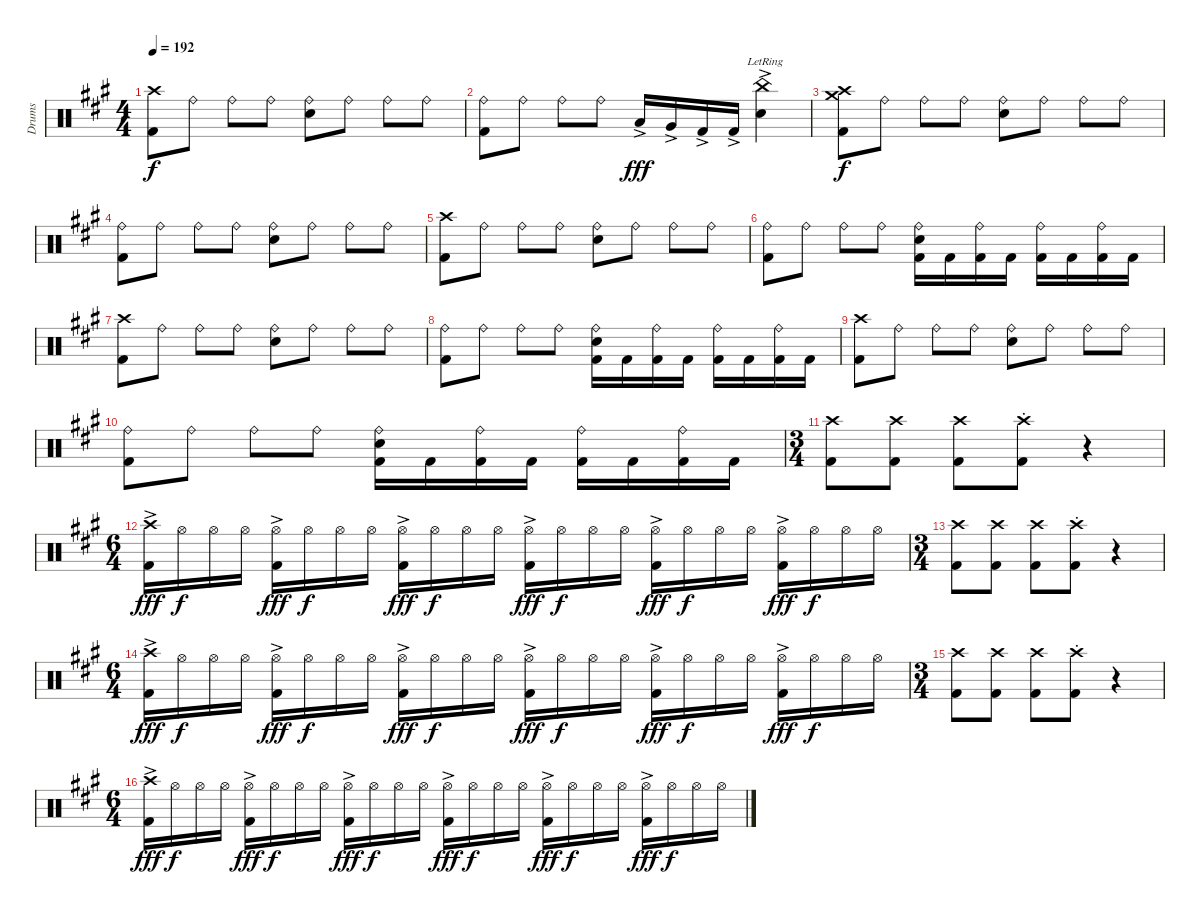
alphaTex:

\track ("Drums" "Drums") {instrument percussion}
\staff {score}
\articulation defaults
\ts (4 4)
\tempo 192
\clef neutral
\ks f#minor
("Crash high (hit)" "Kick (hit) 2").8{dy f} "Ride (bell)".8 "Ride (bell)".8 "Ride (bell)".8 ("Ride (bell)" "Snare (hit) 2").8 "Ride (bell)".8 "Ride (bell)".8 "Ride (bell)".8 |
("Ride (bell)" "Kick (hit) 2").8 "Ride (bell)".8 "Ride (bell)".8 "Ride (bell)".8 "Low Tom (hit)"{ac}.16{dy fff} "Very Low Tom (hit)"{ac}.16 "Kick (hit) 2"{ac}.16 "Kick (hit) 2"{ac}.16 ("China (hit)"{ac lr} "Snare (hit) 2"{ac lr}).4 |
("Crash high (hit)" "Crash medium (hit)" "Kick (hit) 2").8{dy f} "Ride (bell)".8 "Ride (bell)".8 "Ride (bell)".8 ("Ride (bell)" "Snare (hit) 2").8 "Ride (bell)".8 "Ride (bell)".8 "Ride (bell)".8 |
("Ride (bell)" "Kick (hit) 2").8 "Ride (bell)".8 "Ride (bell)".8 "Ride (bell)".8 ("Ride (bell)" "Snare (hit) 2").8 "Ride (bell)".8 "Ride (bell)".8 "Ride (bell)".8 |
("Crash high (hit)" "Kick (hit) 2").8 "Ride (bell)".8 "Ride (bell)".8 "Ride (bell)".8 ("Ride (bell)" "Snare (hit) 2").8 "Ride (bell)".8 "Ride (bell)".8 "Ride (bell)".8 |
("Ride (bell)" "Kick (hit) 2").8 "Ride (bell)".8 "Ride (bell)".8 "Ride (bell)".8 ("Ride (bell)" "Snare (hit) 2" "Kick (hit) 2").16 "Kick (hit) 2".16 ("Ride (bell)" "Kick (hit) 2").16 "Kick (hit) 2".16 ("Ride (bell)" "Kick (hit) 2").16 "Kick (hit) 2".16 ("Ride (bell)" "Kick (hit) 2").16 "Kick (hit) 2".16 |
("Crash high (hit)" "Kick (hit) 2").8 "Ride (bell)".8 "Ride (bell)".8 "Ride (bell)".8 ("Ride (bell)" "Snare (hit) 2").8 "Ride (bell)".8 "Ride (bell)".8 "Ride (bell)".8 |
("Ride (bell)" "Kick (hit) 2").8 "Ride (bell)".8 "Ride (bell)".8 "Ride (bell)".8 ("Ride (bell)" "Snare (hit) 2" "Kick (hit) 2").16 "Kick (hit) 2".16 ("Ride (bell)" "Kick (hit) 2").16 "Kick (hit) 2".16 ("Ride (bell)" "Kick (hit) 2").16 "Kick (hit) 2".16 ("Ride (bell)" "Kick (hit) 2").16 "Kick (hit) 2".16 |
("Crash high (hit)" "Kick (hit) 2").8 "Ride (bell)".8 "Ride (bell)".8 "Ride (bell)".8 ("Ride (bell)" "Snare (hit) 2").8 "Ride (bell)".8 "Ride (bell)".8 "Ride (bell)".8 |
("Ride (bell)" "Kick (hit) 2").8 "Ride (bell)".8 "Ride (bell)".8 "Ride (bell)".8 ("Ride (bell)" "Snare (hit) 2" "Kick (hit) 2").16 "Kick (hit) 2".16 ("Ride (bell)" "Kick (hit) 2").16 "Kick (hit) 2".16 ("Ride (bell)" "Kick (hit) 2").16 "Kick (hit) 2".16 ("Ride (bell)" "Kick (hit) 2").16 "Kick (hit) 2".16 |
\ts (3 4)
("Crash high (hit)" "Kick (hit) 2").8 ("Crash high (hit)" "Kick (hit) 2").8 ("Crash high (hit)" "Kick (hit) 2").8 ("Crash high (hit)"{st} "Kick (hit) 2").8 r.4 |
\ts (6 4)
("Crash high (hit)"{ac} "Kick (hit) 2"{ac}).16{dy fff} "Hi-Hat (open)".16{dy f} "Hi-Hat (open)".16 "Hi-Hat (open)".16 ("Hi-Hat (open)"{ac} "Kick (hit) 2").16{dy fff} "Hi-Hat (open)".16{dy f} "Hi-Hat (open)".16 "Hi-Hat (open)".16 ("Hi-Hat (open)"{ac} "Kick (hit) 2").16{dy fff} "Hi-Hat (open)".16{dy f} "Hi-Hat (open)".16 "Hi-Hat (open)".16 ("Hi-Hat (open)"{ac} "Kick (hit) 2").16{dy fff} "Hi-Hat (open)".16{dy f} "Hi-Hat (open)".16 "Hi-Hat (open)".16 ("Hi-Hat (open)"{ac} "Kick (hit) 2").16{dy fff} "Hi-Hat (open)".16{dy f} "Hi-Hat (open)".16 "Hi-Hat (open)".16 ("Hi-Hat (open)"{ac} "Kick (hit) 2").16{dy fff} "Hi-Hat (open)".16{dy f} "Hi-Hat (open)".16 "Hi-Hat (open)".16 |
\ts (3 4)
("Crash high (hit)" "Kick (hit) 2").8 ("Crash high (hit)" "Kick (hit) 2").8 ("Crash high (hit)" "Kick (hit) 2").8 ("Crash high (hit)"{st} "Kick (hit) 2").8 r.4 |
\ts (6 4)
("Crash high (hit)"{ac} "Kick (hit) 2"{ac}).16{dy fff} "Hi-Hat (open)".16{dy f} "Hi-Hat (open)".16 "Hi-Hat (open)".16 ("Hi-Hat (open)"{ac} "Kick (hit) 2").16{dy fff} "Hi-Hat (open)".16{dy f} "Hi-Hat (open)".16 "Hi-Hat (open)".16 ("Hi-Hat (open)"{ac} "Kick (hit) 2").16{dy fff} "Hi-Hat (open)".16{dy f} "Hi-Hat (open)".16 "Hi-Hat (open)".16 ("Hi-Hat (open)"{ac} "Kick (hit) 2").16{dy fff} "Hi-Hat (open)".16{dy f} "Hi-Hat (open)".16 "Hi-Hat (open)".16 ("Hi-Hat (open)"{ac} "Kick (hit) 2").16{dy fff} "Hi-Hat (open)".16{dy f} "Hi-Hat (open)".16 "Hi-Hat (open)".16 ("Hi-Hat (open)"{ac} "Kick (hit) 2").16{dy fff} "Hi-Hat (open)".16{dy f} "Hi-Hat (open)".16 "Hi-Hat (open)".16 |
\ts (3 4)
("Crash high (hit)" "Kick (hit) 2").8 ("Crash high (hit)" "Kick (hit) 2").8 ("Crash high (hit)" "Kick (hit) 2").8 ("Crash high (hit)"{st} "Kick (hit) 2").8 r.4 |
\ts (6 4)
("Crash high (hit)"{ac} "Kick (hit) 2"{ac}).16{dy fff} "Hi-Hat (open)".16{dy f} "Hi-Hat (open)".16 "Hi-Hat (open)".16 ("Hi-Hat (open)"{ac} "Kick (hit) 2").16{dy fff} "Hi-Hat (open)".16{dy f} "Hi-Hat (open)".16 "Hi-Hat (open)".16 ("Hi-Hat (open)"{ac} "Kick (hit) 2").16{dy fff} "Hi-Hat (open)".16{dy f} "Hi-Hat (open)".16 "Hi-Hat (open)".16 ("Hi-Hat (open)"{ac} "Kick (hit) 2").16{dy fff} "Hi-Hat (open)".16{dy f} "Hi-Hat (open)".16 "Hi-Hat (open)".16 ("Hi-Hat (open)"{ac} "Kick (hit) 2").16{dy fff} "Hi-Hat (open)".16{dy f} "Hi-Hat (open)".16 "Hi-Hat (open)".16 ("Hi-Hat (open)"{ac} "Kick (hit) 2").16{dy fff} "Hi-Hat (open)".16{dy f} "Hi-Hat (open)".16 "Hi-Hat (open)".16
